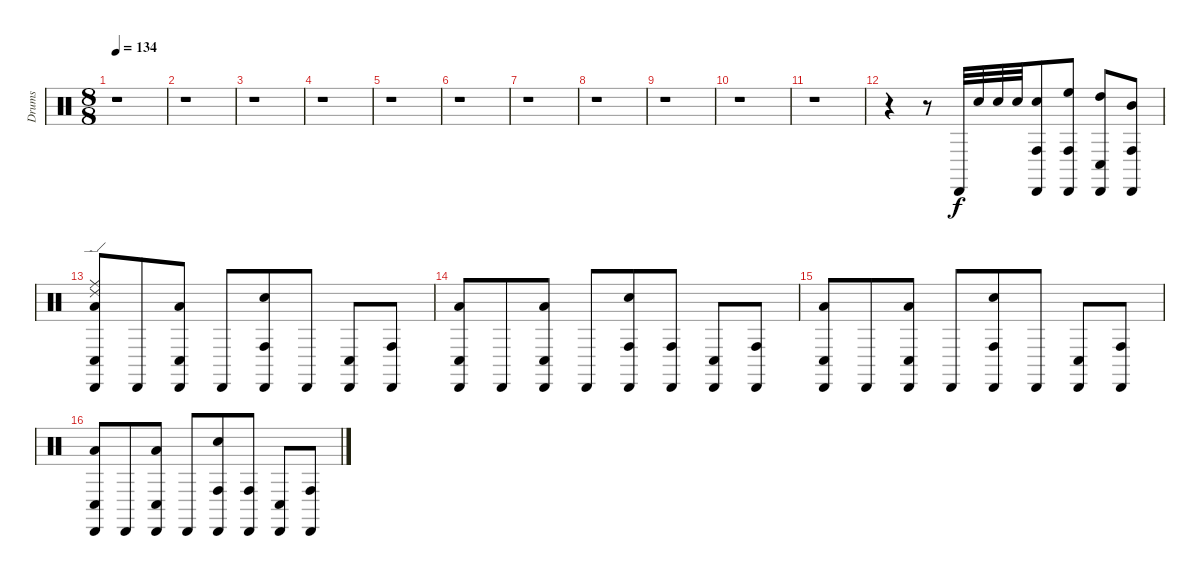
\track ("Drums" "Drums") {instrument percussion}
\staff {score}
\articulation defaults
\ts (8 8)
\tempo 134
\clef neutral
\ks c
r.1{dy f} |
r.1 |
r.1 |
r.1 |
r.1 |
r.1 |
r.1 |
r.1 |
r.1 |
r.1 |
r.1 |
r.4 r.8 "Cabasa (hit)".32 "Electric Snare (hit)".32 "Electric Snare (hit)".32 "Electric Snare (hit)".32 ("Electric Snare (hit)" "Cabasa (hit)" "Conga high (hit)").8 ("Cabasa (hit)" "High Floor Tom (hit)" "Conga high (hit)").8 ("Cabasa (hit)" "High Tom (hit)" "Conga low (hit)").8 ("Cabasa (hit)" "Mid Tom (hit)" "Conga high (hit)").8 |
("Ride (edge) 2" "Ride (middle)" "Cabasa (hit)" "Low Tom (hit)" "Conga low (hit)").8 "Cabasa (hit)".8 ("Cabasa (hit)" "Low Tom (hit)" "Conga low (hit)").8 "Cabasa (hit)".8 ("Electric Snare (hit)" "Cabasa (hit)" "Conga high (hit)").8 "Cabasa (hit)".8 ("Cabasa (hit)" "Conga low (hit)").8 ("Cabasa (hit)" "Conga high (hit)").8 |
("Cabasa (hit)" "Low Tom (hit)" "Conga low (hit)").8 "Cabasa (hit)".8 ("Cabasa (hit)" "Low Tom (hit)" "Conga low (hit)").8 "Cabasa (hit)".8 ("Electric Snare (hit)" "Cabasa (hit)" "Conga high (hit)").8 ("Conga high (hit)" "Cabasa (hit)").8 ("Cabasa (hit)" "Conga low (hit)").8 ("Cabasa (hit)" "Conga high (hit)").8 |
("Cabasa (hit)" "Low Tom (hit)" "Conga low (hit)").8 "Cabasa (hit)".8 ("Cabasa (hit)" "Low Tom (hit)" "Conga low (hit)").8 "Cabasa (hit)".8 ("Electric Snare (hit)" "Cabasa (hit)" "Conga high (hit)").8 "Cabasa (hit)".8 ("Cabasa (hit)" "Conga low (hit)").8 ("Cabasa (hit)" "Conga high (hit)").8 |
("Cabasa (hit)" "Low Tom (hit)" "Conga low (hit)").8 "Cabasa (hit)".8 ("Cabasa (hit)" "Low Tom (hit)" "Conga low (hit)").8 "Cabasa (hit)".8 ("Electric Snare (hit)" "Cabasa (hit)" "Conga high (hit)").8 ("Conga high (hit)" "Cabasa (hit)").8 ("Cabasa (hit)" "Conga low (hit)").8 ("Cabasa (hit)" "Conga high (hit)").8
